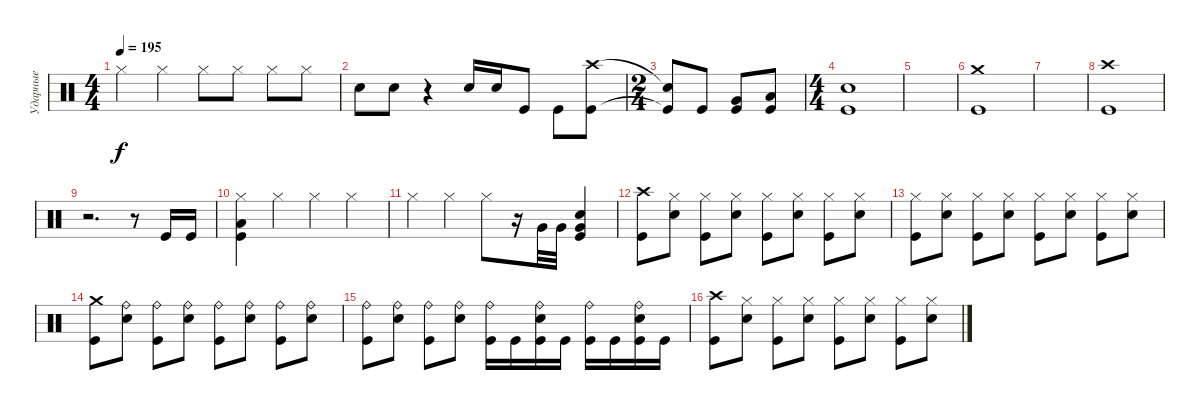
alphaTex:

\track ("Ударные" "Ударные") {instrument percussion}
\staff {score}
\articulation defaults
\ts (4 4)
\tempo 195
\clef neutral
\ks c "Hi-Hat (closed)".4{dy f} "Hi-Hat (closed)".4 "Hi-Hat (closed)".8 "Hi-Hat (closed)".8 "Hi-Hat (closed)".8 "Hi-Hat (closed)".8
|
"Electric Snare (hit)".8 "Electric Snare (hit)".8 r.4 "Electric Snare (hit)".16 "Electric Snare (hit)".16 "Kick (hit)".8 "Kick (hit)".8 ("Crash high (hit)" "Kick (hit)").8 |
\ts (2 4)
("Snare (hit)"{t} "Kick (hit)"{t}).8 "Kick (hit)".8 ("Very Low Tom (hit)" "Kick (hit)").8 ("Low Tom (hit)" "Kick (hit)").8 |
\ts (4 4)
("Electric Snare (hit)" "Kick (hit)").1 |
|
("Crash medium (hit)" "Kick (hit)").1 |
|
("Crash high (hit)" "Kick (hit)").1 |
r.2{d} r.8 "Kick (hit)".16 "Kick (hit)".16 |
("Hi-Hat (closed)" "Low Tom (hit)" "Kick (hit)").4 "Hi-Hat (closed)".4 "Hi-Hat (closed)".4 "Hi-Hat (closed)".4 |
"Hi-Hat (closed)".4 "Hi-Hat (closed)".4 "Hi-Hat (closed)".8 r.16 "Very Low Tom (hit)".32 "Very Low Tom (hit)".32 ("Electric Snare (hit)" "Very Low Tom (hit)" "Kick (hit)").4 |
("Crash high (hit)" "Kick (hit)").8 ("Hi-Hat (closed)" "Electric Snare (hit)").8 ("Hi-Hat (closed)" "Kick (hit)").8 ("Hi-Hat (closed)" "Electric Snare (hit)").8 ("Hi-Hat (closed)" "Kick (hit)").8 ("Hi-Hat (closed)" "Electric Snare (hit)").8 ("Hi-Hat (closed)" "Kick (hit)").8 ("Hi-Hat (closed)" "Electric Snare (hit)").8 |
("Hi-Hat (closed)" "Kick (hit)").8 ("Hi-Hat (closed)" "Electric Snare (hit)").8 ("Hi-Hat (closed)" "Kick (hit)").8 ("Hi-Hat (closed)" "Electric Snare (hit)").8 ("Hi-Hat (closed)" "Kick (hit)").8 ("Hi-Hat (closed)" "Electric Snare (hit)").8 ("Hi-Hat (closed)" "Kick (hit)").8 ("Hi-Hat (closed)" "Electric Snare (hit)").8 |
("Crash medium (hit)" "Kick (hit)").8 ("Ride (bell)" "Electric Snare (hit)").8 ("Ride (bell)" "Kick (hit)").8 ("Ride (bell)" "Electric Snare (hit)").8 ("Ride (bell)" "Kick (hit)").8 ("Ride (bell)" "Electric Snare (hit)").8 ("Ride (bell)" "Kick (hit)").8 ("Ride (bell)" "Electric Snare (hit)").8 |
("Ride (bell)" "Kick (hit)").8 ("Ride (bell)" "Electric Snare (hit)").8 ("Ride (bell)" "Kick (hit)").8 ("Ride (bell)" "Electric Snare (hit)").8 ("Ride (bell)" "Kick (hit)").16 "Kick (hit)".16 ("Ride (bell)" "Electric Snare (hit)" "Kick (hit)").16 "Kick (hit)".16 ("Ride (bell)" "Kick (hit)").16 "Kick (hit)".16 ("Ride (bell)" "Electric Snare (hit)" "Kick (hit)").16 "Kick (hit)".16 |
("Crash high (hit)" "Kick (hit)").8 ("Hi-Hat (closed)" "Electric Snare (hit)").8 ("Hi-Hat (closed)" "Kick (hit)").8 ("Hi-Hat (closed)" "Electric Snare (hit)").8 ("Hi-Hat (closed)" "Kick (hit)").8 ("Hi-Hat (closed)" "Electric Snare (hit)").8 ("Hi-Hat (closed)" "Kick (hit)").8 ("Hi-Hat (closed)" "Electric Snare (hit)").8
